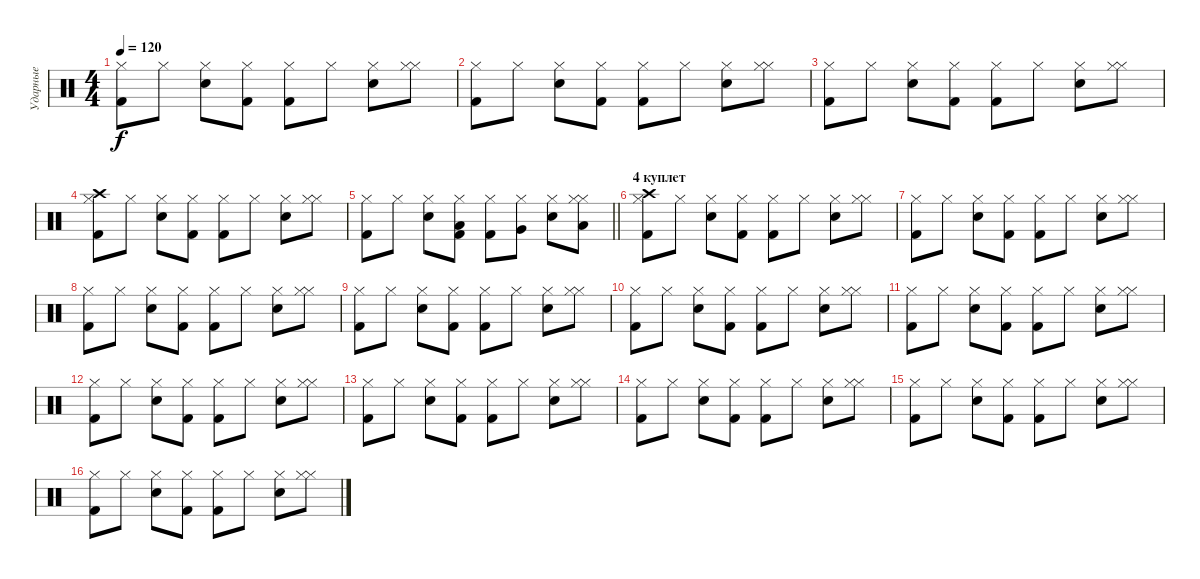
\track ("Ударные" "Ударные") {instrument percussion}
\staff {score}
\articulation defaults
\ts (4 4)
\tempo 120
\clef neutral
\ks c
("Kick (hit) 2" "Hi-Hat (closed)").8{dy f} "Hi-Hat (closed)".8 ("Electric Snare (hit)" "Hi-Hat (closed)").8 ("Kick (hit) 2" "Hi-Hat (closed)").8 ("Kick (hit) 2" "Hi-Hat (closed)").8 "Hi-Hat (closed)".8 ("Electric Snare (hit)" "Hi-Hat (closed)").8 ("Hi-Hat (closed)" "Hi-Hat (closed)").8 |
("Kick (hit) 2" "Hi-Hat (closed)").8 "Hi-Hat (closed)".8 ("Electric Snare (hit)" "Hi-Hat (closed)").8 ("Kick (hit) 2" "Hi-Hat (closed)").8 ("Kick (hit) 2" "Hi-Hat (closed)").8 "Hi-Hat (closed)".8 ("Electric Snare (hit)" "Hi-Hat (closed)").8 ("Hi-Hat (closed)" "Hi-Hat (closed)").8 |
("Kick (hit) 2" "Hi-Hat (closed)").8 "Hi-Hat (closed)".8 ("Electric Snare (hit)" "Hi-Hat (closed)").8 ("Kick (hit) 2" "Hi-Hat (closed)").8 ("Kick (hit) 2" "Hi-Hat (closed)").8 "Hi-Hat (closed)".8 ("Electric Snare (hit)" "Hi-Hat (closed)").8 ("Hi-Hat (closed)" "Hi-Hat (closed)").8 |
("Kick (hit) 2" "Hi-Hat (closed)" "Crash high (hit)").8 "Hi-Hat (closed)".8 ("Electric Snare (hit)" "Hi-Hat (closed)").8 ("Kick (hit) 2" "Hi-Hat (closed)").8 ("Kick (hit) 2" "Hi-Hat (closed)").8 "Hi-Hat (closed)".8 ("Electric Snare (hit)" "Hi-Hat (closed)").8 ("Hi-Hat (closed)" "Hi-Hat (closed)").8 |
\barLineRight lightlight
("Kick (hit) 2" "Hi-Hat (closed)").8 "Hi-Hat (closed)".8 ("Electric Snare (hit)" "Hi-Hat (closed)").8 ("Kick (hit) 2" "Hi-Hat (closed)" "Low Floor Tom (hit)").8 ("Kick (hit) 2" "Hi-Hat (closed)").8 ("Hi-Hat (closed)" "Very Low Tom (hit)").8 ("Electric Snare (hit)" "Hi-Hat (closed)").8 ("Hi-Hat (closed)" "Hi-Hat (closed)" "Low Tom (hit)").8 |
\section ("" "4 куплет")
("Kick (hit) 2" "Hi-Hat (closed)" "Crash high (hit)").8 "Hi-Hat (closed)".8 ("Electric Snare (hit)" "Hi-Hat (closed)").8 ("Kick (hit) 2" "Hi-Hat (closed)").8 ("Kick (hit) 2" "Hi-Hat (closed)").8 "Hi-Hat (closed)".8 ("Electric Snare (hit)" "Hi-Hat (closed)").8 ("Hi-Hat (closed)" "Hi-Hat (closed)").8 |
("Kick (hit) 2" "Hi-Hat (closed)").8 "Hi-Hat (closed)".8 ("Electric Snare (hit)" "Hi-Hat (closed)").8 ("Kick (hit) 2" "Hi-Hat (closed)").8 ("Kick (hit) 2" "Hi-Hat (closed)").8 "Hi-Hat (closed)".8 ("Electric Snare (hit)" "Hi-Hat (closed)").8 ("Hi-Hat (closed)" "Hi-Hat (closed)").8 |
("Kick (hit) 2" "Hi-Hat (closed)").8 "Hi-Hat (closed)".8 ("Electric Snare (hit)" "Hi-Hat (closed)").8 ("Kick (hit) 2" "Hi-Hat (closed)").8 ("Kick (hit) 2" "Hi-Hat (closed)").8 "Hi-Hat (closed)".8 ("Electric Snare (hit)" "Hi-Hat (closed)").8 ("Hi-Hat (closed)" "Hi-Hat (closed)").8 |
("Kick (hit) 2" "Hi-Hat (closed)").8 "Hi-Hat (closed)".8 ("Electric Snare (hit)" "Hi-Hat (closed)").8 ("Kick (hit) 2" "Hi-Hat (closed)").8 ("Kick (hit) 2" "Hi-Hat (closed)").8 "Hi-Hat (closed)".8 ("Electric Snare (hit)" "Hi-Hat (closed)").8 ("Hi-Hat (closed)" "Hi-Hat (closed)").8 |
("Kick (hit) 2" "Hi-Hat (closed)").8 "Hi-Hat (closed)".8 ("Electric Snare (hit)" "Hi-Hat (closed)").8 ("Kick (hit) 2" "Hi-Hat (closed)").8 ("Kick (hit) 2" "Hi-Hat (closed)").8 "Hi-Hat (closed)".8 ("Electric Snare (hit)" "Hi-Hat (closed)").8 ("Hi-Hat (closed)" "Hi-Hat (closed)").8 |
("Kick (hit) 2" "Hi-Hat (closed)").8 "Hi-Hat (closed)".8 ("Electric Snare (hit)" "Hi-Hat (closed)").8 ("Kick (hit) 2" "Hi-Hat (closed)").8 ("Kick (hit) 2" "Hi-Hat (closed)").8 "Hi-Hat (closed)".8 ("Electric Snare (hit)" "Hi-Hat (closed)").8 ("Hi-Hat (closed)" "Hi-Hat (closed)").8 |
("Kick (hit) 2" "Hi-Hat (closed)").8 "Hi-Hat (closed)".8 ("Electric Snare (hit)" "Hi-Hat (closed)").8 ("Kick (hit) 2" "Hi-Hat (closed)").8 ("Kick (hit) 2" "Hi-Hat (closed)").8 "Hi-Hat (closed)".8 ("Electric Snare (hit)" "Hi-Hat (closed)").8 ("Hi-Hat (closed)" "Hi-Hat (closed)").8 |
("Kick (hit) 2" "Hi-Hat (closed)").8 "Hi-Hat (closed)".8 ("Electric Snare (hit)" "Hi-Hat (closed)").8 ("Kick (hit) 2" "Hi-Hat (closed)").8 ("Kick (hit) 2" "Hi-Hat (closed)").8 "Hi-Hat (closed)".8 ("Electric Snare (hit)" "Hi-Hat (closed)").8 ("Hi-Hat (closed)" "Hi-Hat (closed)").8 |
("Kick (hit) 2" "Hi-Hat (closed)").8 "Hi-Hat (closed)".8 ("Electric Snare (hit)" "Hi-Hat (closed)").8 ("Kick (hit) 2" "Hi-Hat (closed)").8 ("Kick (hit) 2" "Hi-Hat (closed)").8 "Hi-Hat (closed)".8 ("Electric Snare (hit)" "Hi-Hat (closed)").8 ("Hi-Hat (closed)" "Hi-Hat (closed)").8 |
("Kick (hit) 2" "Hi-Hat (closed)").8 "Hi-Hat (closed)".8 ("Electric Snare (hit)" "Hi-Hat (closed)").8 ("Kick (hit) 2" "Hi-Hat (closed)").8 ("Kick (hit) 2" "Hi-Hat (closed)").8 "Hi-Hat (closed)".8 ("Electric Snare (hit)" "Hi-Hat (closed)").8 ("Hi-Hat (closed)" "Hi-Hat (closed)").8 |
("Kick (hit) 2" "Hi-Hat (closed)").8 "Hi-Hat (closed)".8 ("Electric Snare (hit)" "Hi-Hat (closed)").8 ("Kick (hit) 2" "Hi-Hat (closed)").8 ("Kick (hit) 2" "Hi-Hat (closed)").8 "Hi-Hat (closed)".8 ("Electric Snare (hit)" "Hi-Hat (closed)").8 ("Hi-Hat (closed)" "Hi-Hat (closed)").8
